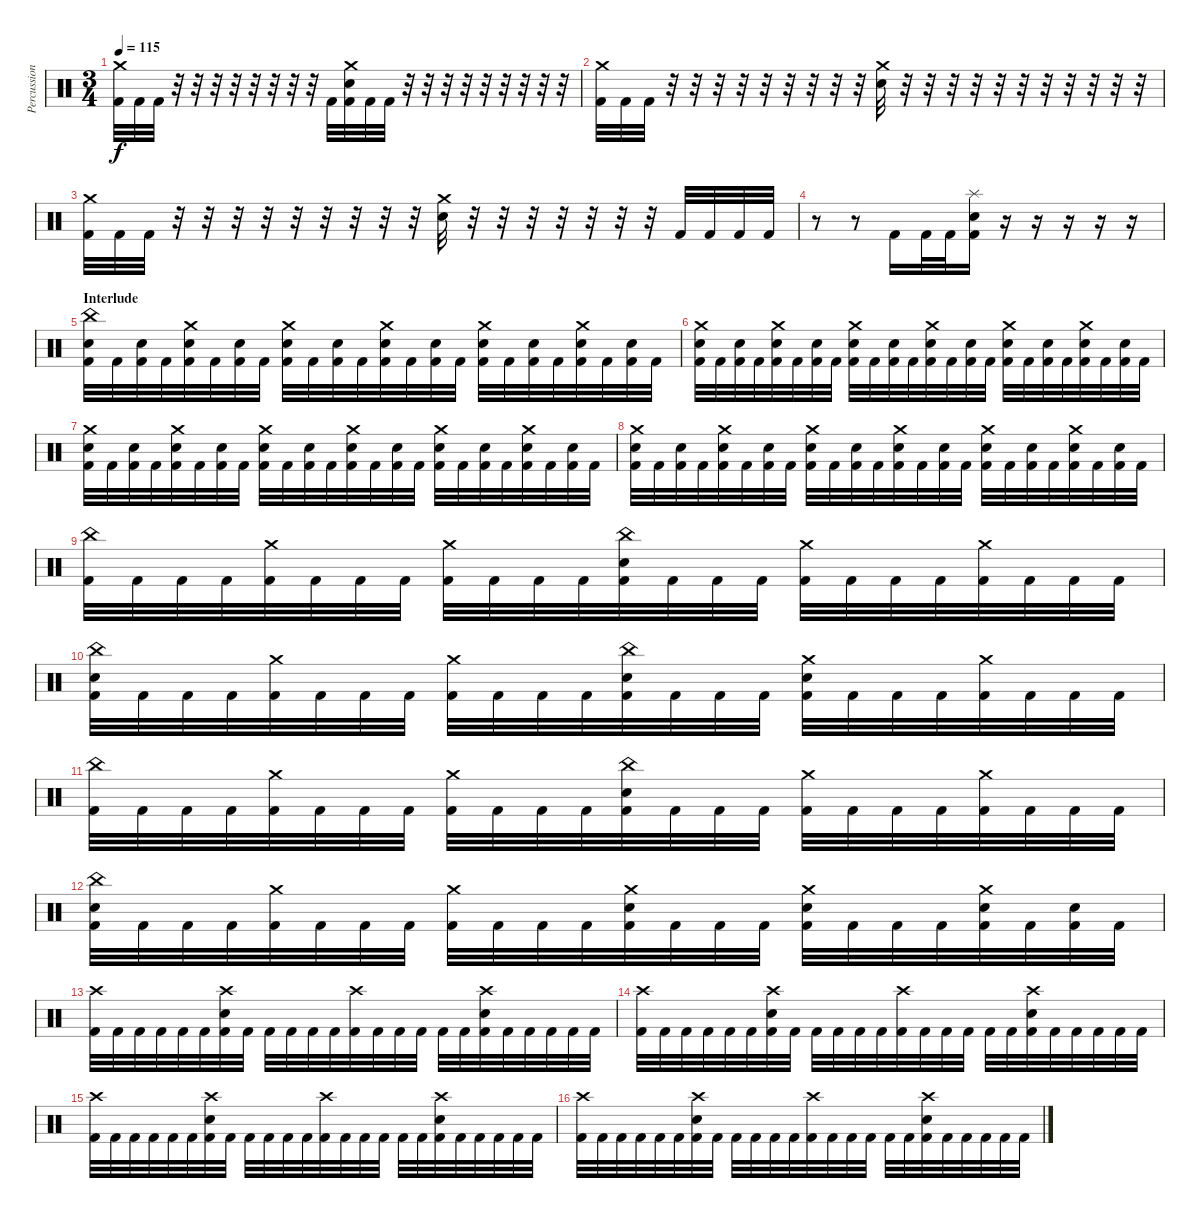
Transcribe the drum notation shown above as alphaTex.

\track ("Percussion" "Percussion") {instrument percussion}
\staff {score}
\articulation defaults
\ts (3 4)
\tempo 115
\clef neutral
\ks c
("Crash medium (hit)" "Kick (hit) 2").32{dy f} "Kick (hit) 2".32 "Kick (hit) 2".32 r.32 r.32 r.32 r.32 r.32 r.32 r.32 r.32 "Kick (hit) 2".32 ("Crash medium (hit)" "Electric Snare (hit)" "Kick (hit) 2").32 "Kick (hit) 2".32 "Kick (hit) 2".32 r.32 r.32 r.32 r.32 r.32 r.32 r.32 r.32 r.32 |
("Crash medium (hit)" "Kick (hit) 2").32 "Kick (hit) 2".32 "Kick (hit) 2".32 r.32 r.32 r.32 r.32 r.32 r.32 r.32 r.32 r.32 ("Crash medium (hit)" "Electric Snare (hit)").32 r.32 r.32 r.32 r.32 r.32 r.32 r.32 r.32 r.32 r.32 r.32 |
("Crash medium (hit)" "Kick (hit) 2").32 "Kick (hit) 2".32 "Kick (hit) 2".32 r.32 r.32 r.32 r.32 r.32 r.32 r.32 r.32 r.32 ("Crash medium (hit)" "Electric Snare (hit)").32 r.32 r.32 r.32 r.32 r.32 r.32 r.32 "Kick (hit) 2".32 "Kick (hit) 2".32 "Kick (hit) 2".32 "Kick (hit) 2".32 |
r.8 r.8 "Kick (hit) 2".16 "Kick (hit) 2".32 "Kick (hit) 2".32 ("Electric Snare (hit)" "Kick (hit) 2" "Splash (hit)").16 r.16 r.16 r.16 r.16 r.16 |
\section ("" "Interlude")
("Kick (hit) 2" "China (hit)" "Electric Snare (hit)").32 "Kick (hit) 2".32 ("Kick (hit) 2" "Electric Snare (hit)").32 "Kick (hit) 2".32 ("Kick (hit) 2" "Crash medium (hit)" "Electric Snare (hit)").32 "Kick (hit) 2".32 ("Kick (hit) 2" "Electric Snare (hit)").32 "Kick (hit) 2".32 ("Kick (hit) 2" "Crash medium (hit)" "Electric Snare (hit)").32 "Kick (hit) 2".32 ("Kick (hit) 2" "Electric Snare (hit)").32 "Kick (hit) 2".32 ("Kick (hit) 2" "Crash medium (hit)" "Electric Snare (hit)").32 "Kick (hit) 2".32 ("Kick (hit) 2" "Electric Snare (hit)").32 "Kick (hit) 2".32 ("Kick (hit) 2" "Crash medium (hit)" "Electric Snare (hit)").32 "Kick (hit) 2".32 ("Kick (hit) 2" "Electric Snare (hit)").32 "Kick (hit) 2".32 ("Kick (hit) 2" "Crash medium (hit)" "Electric Snare (hit)").32 "Kick (hit) 2".32 ("Kick (hit) 2" "Electric Snare (hit)").32 "Kick (hit) 2".32 |
("Kick (hit) 2" "Crash medium (hit)" "Electric Snare (hit)").32 "Kick (hit) 2".32 ("Kick (hit) 2" "Electric Snare (hit)").32 "Kick (hit) 2".32 ("Kick (hit) 2" "Crash medium (hit)" "Electric Snare (hit)").32 "Kick (hit) 2".32 ("Kick (hit) 2" "Electric Snare (hit)").32 "Kick (hit) 2".32 ("Kick (hit) 2" "Crash medium (hit)" "Electric Snare (hit)").32 "Kick (hit) 2".32 ("Kick (hit) 2" "Electric Snare (hit)").32 "Kick (hit) 2".32 ("Kick (hit) 2" "Crash medium (hit)" "Electric Snare (hit)").32 "Kick (hit) 2".32 ("Kick (hit) 2" "Electric Snare (hit)").32 "Kick (hit) 2".32 ("Kick (hit) 2" "Crash medium (hit)" "Electric Snare (hit)").32 "Kick (hit) 2".32 ("Kick (hit) 2" "Electric Snare (hit)").32 "Kick (hit) 2".32 ("Kick (hit) 2" "Crash medium (hit)" "Electric Snare (hit)").32 "Kick (hit) 2".32 ("Kick (hit) 2" "Electric Snare (hit)").32 "Kick (hit) 2".32 |
("Kick (hit) 2" "Crash medium (hit)" "Electric Snare (hit)").32 "Kick (hit) 2".32 ("Kick (hit) 2" "Electric Snare (hit)").32 "Kick (hit) 2".32 ("Kick (hit) 2" "Crash medium (hit)" "Electric Snare (hit)").32 "Kick (hit) 2".32 ("Kick (hit) 2" "Electric Snare (hit)").32 "Kick (hit) 2".32 ("Kick (hit) 2" "Crash medium (hit)" "Electric Snare (hit)").32 "Kick (hit) 2".32 ("Kick (hit) 2" "Electric Snare (hit)").32 "Kick (hit) 2".32 ("Kick (hit) 2" "Crash medium (hit)" "Electric Snare (hit)").32 "Kick (hit) 2".32 ("Kick (hit) 2" "Electric Snare (hit)").32 "Kick (hit) 2".32 ("Kick (hit) 2" "Crash medium (hit)" "Electric Snare (hit)").32 "Kick (hit) 2".32 ("Kick (hit) 2" "Electric Snare (hit)").32 "Kick (hit) 2".32 ("Kick (hit) 2" "Crash medium (hit)" "Electric Snare (hit)").32 "Kick (hit) 2".32 ("Kick (hit) 2" "Electric Snare (hit)").32 "Kick (hit) 2".32 |
("Kick (hit) 2" "Crash medium (hit)" "Electric Snare (hit)").32 "Kick (hit) 2".32 ("Kick (hit) 2" "Electric Snare (hit)").32 "Kick (hit) 2".32 ("Kick (hit) 2" "Crash medium (hit)" "Electric Snare (hit)").32 "Kick (hit) 2".32 ("Kick (hit) 2" "Electric Snare (hit)").32 "Kick (hit) 2".32 ("Kick (hit) 2" "Crash medium (hit)" "Electric Snare (hit)").32 "Kick (hit) 2".32 ("Kick (hit) 2" "Electric Snare (hit)").32 "Kick (hit) 2".32 ("Kick (hit) 2" "Crash medium (hit)" "Electric Snare (hit)").32 "Kick (hit) 2".32 ("Kick (hit) 2" "Electric Snare (hit)").32 "Kick (hit) 2".32 ("Kick (hit) 2" "Crash medium (hit)" "Electric Snare (hit)").32 "Kick (hit) 2".32 ("Kick (hit) 2" "Electric Snare (hit)").32 "Kick (hit) 2".32 ("Kick (hit) 2" "Crash medium (hit)" "Electric Snare (hit)").32 "Kick (hit) 2".32 ("Kick (hit) 2" "Electric Snare (hit)").32 "Kick (hit) 2".32 |
("Kick (hit) 2" "China (hit)").32 "Kick (hit) 2".32 "Kick (hit) 2".32 "Kick (hit) 2".32 ("Kick (hit) 2" "Crash medium (hit)").32 "Kick (hit) 2".32 "Kick (hit) 2".32 "Kick (hit) 2".32 ("Kick (hit) 2" "Crash medium (hit)").32 "Kick (hit) 2".32 "Kick (hit) 2".32 "Kick (hit) 2".32 ("Kick (hit) 2" "China (hit)" "Electric Snare (hit)").32 "Kick (hit) 2".32 "Kick (hit) 2".32 "Kick (hit) 2".32 ("Kick (hit) 2" "Crash medium (hit)").32 "Kick (hit) 2".32 "Kick (hit) 2".32 "Kick (hit) 2".32 ("Kick (hit) 2" "Crash medium (hit)").32 "Kick (hit) 2".32 "Kick (hit) 2".32 "Kick (hit) 2".32 |
("Kick (hit) 2" "China (hit)" "Electric Snare (hit)").32 "Kick (hit) 2".32 "Kick (hit) 2".32 "Kick (hit) 2".32 ("Kick (hit) 2" "Crash medium (hit)").32 "Kick (hit) 2".32 "Kick (hit) 2".32 "Kick (hit) 2".32 ("Kick (hit) 2" "Crash medium (hit)").32 "Kick (hit) 2".32 "Kick (hit) 2".32 "Kick (hit) 2".32 ("Kick (hit) 2" "China (hit)" "Electric Snare (hit)").32 "Kick (hit) 2".32 "Kick (hit) 2".32 "Kick (hit) 2".32 ("Kick (hit) 2" "Crash medium (hit)" "Electric Snare (hit)").32 "Kick (hit) 2".32 "Kick (hit) 2".32 "Kick (hit) 2".32 ("Kick (hit) 2" "Crash medium (hit)").32 "Kick (hit) 2".32 "Kick (hit) 2".32 "Kick (hit) 2".32 |
("Kick (hit) 2" "China (hit)").32 "Kick (hit) 2".32 "Kick (hit) 2".32 "Kick (hit) 2".32 ("Kick (hit) 2" "Crash medium (hit)").32 "Kick (hit) 2".32 "Kick (hit) 2".32 "Kick (hit) 2".32 ("Kick (hit) 2" "Crash medium (hit)").32 "Kick (hit) 2".32 "Kick (hit) 2".32 "Kick (hit) 2".32 ("Kick (hit) 2" "China (hit)" "Electric Snare (hit)").32 "Kick (hit) 2".32 "Kick (hit) 2".32 "Kick (hit) 2".32 ("Kick (hit) 2" "Crash medium (hit)").32 "Kick (hit) 2".32 "Kick (hit) 2".32 "Kick (hit) 2".32 ("Kick (hit) 2" "Crash medium (hit)").32 "Kick (hit) 2".32 "Kick (hit) 2".32 "Kick (hit) 2".32 |
("Kick (hit) 2" "China (hit)" "Electric Snare (hit)").32 "Kick (hit) 2".32 "Kick (hit) 2".32 "Kick (hit) 2".32 ("Kick (hit) 2" "Crash medium (hit)").32 "Kick (hit) 2".32 "Kick (hit) 2".32 "Kick (hit) 2".32 ("Kick (hit) 2" "Crash medium (hit)").32 "Kick (hit) 2".32 "Kick (hit) 2".32 "Kick (hit) 2".32 ("Kick (hit) 2" "Crash medium (hit)" "Electric Snare (hit)").32 "Kick (hit) 2".32 "Kick (hit) 2".32 "Kick (hit) 2".32 ("Kick (hit) 2" "Crash medium (hit)" "Electric Snare (hit)").32 "Kick (hit) 2".32 "Kick (hit) 2".32 "Kick (hit) 2".32 ("Kick (hit) 2" "Crash medium (hit)" "Electric Snare (hit)").32 "Kick (hit) 2".32 ("Kick (hit) 2" "Electric Snare (hit)").32 "Kick (hit) 2".32 |
("Kick (hit) 2" "Crash high (hit)").32 "Kick (hit) 2".32 "Kick (hit) 2".32 "Kick (hit) 2".32 "Kick (hit) 2".32 "Kick (hit) 2".32 ("Kick (hit) 2" "Crash high (hit)" "Electric Snare (hit)").32 "Kick (hit) 2".32 "Kick (hit) 2".32 "Kick (hit) 2".32 "Kick (hit) 2".32 "Kick (hit) 2".32 ("Kick (hit) 2" "Crash high (hit)").32 "Kick (hit) 2".32 "Kick (hit) 2".32 "Kick (hit) 2".32 "Kick (hit) 2".32 "Kick (hit) 2".32 ("Kick (hit) 2" "Electric Snare (hit)" "Crash high (hit)").32 "Kick (hit) 2".32 "Kick (hit) 2".32 "Kick (hit) 2".32 "Kick (hit) 2".32 "Kick (hit) 2".32 |
("Kick (hit) 2" "Crash high (hit)").32 "Kick (hit) 2".32 "Kick (hit) 2".32 "Kick (hit) 2".32 "Kick (hit) 2".32 "Kick (hit) 2".32 ("Kick (hit) 2" "Crash high (hit)" "Electric Snare (hit)").32 "Kick (hit) 2".32 "Kick (hit) 2".32 "Kick (hit) 2".32 "Kick (hit) 2".32 "Kick (hit) 2".32 ("Kick (hit) 2" "Crash high (hit)").32 "Kick (hit) 2".32 "Kick (hit) 2".32 "Kick (hit) 2".32 "Kick (hit) 2".32 "Kick (hit) 2".32 ("Kick (hit) 2" "Electric Snare (hit)" "Crash high (hit)").32 "Kick (hit) 2".32 "Kick (hit) 2".32 "Kick (hit) 2".32 "Kick (hit) 2".32 "Kick (hit) 2".32 |
("Kick (hit) 2" "Crash high (hit)").32 "Kick (hit) 2".32 "Kick (hit) 2".32 "Kick (hit) 2".32 "Kick (hit) 2".32 "Kick (hit) 2".32 ("Kick (hit) 2" "Crash high (hit)" "Electric Snare (hit)").32 "Kick (hit) 2".32 "Kick (hit) 2".32 "Kick (hit) 2".32 "Kick (hit) 2".32 "Kick (hit) 2".32 ("Kick (hit) 2" "Crash high (hit)").32 "Kick (hit) 2".32 "Kick (hit) 2".32 "Kick (hit) 2".32 "Kick (hit) 2".32 "Kick (hit) 2".32 ("Kick (hit) 2" "Electric Snare (hit)" "Crash high (hit)").32 "Kick (hit) 2".32 "Kick (hit) 2".32 "Kick (hit) 2".32 "Kick (hit) 2".32 "Kick (hit) 2".32 |
("Kick (hit) 2" "Crash high (hit)").32 "Kick (hit) 2".32 "Kick (hit) 2".32 "Kick (hit) 2".32 "Kick (hit) 2".32 "Kick (hit) 2".32 ("Kick (hit) 2" "Crash high (hit)" "Electric Snare (hit)").32 "Kick (hit) 2".32 "Kick (hit) 2".32 "Kick (hit) 2".32 "Kick (hit) 2".32 "Kick (hit) 2".32 ("Kick (hit) 2" "Crash high (hit)").32 "Kick (hit) 2".32 "Kick (hit) 2".32 "Kick (hit) 2".32 "Kick (hit) 2".32 "Kick (hit) 2".32 ("Kick (hit) 2" "Electric Snare (hit)" "Crash high (hit)").32 "Kick (hit) 2".32 "Kick (hit) 2".32 "Kick (hit) 2".32 "Kick (hit) 2".32 "Kick (hit) 2".32
